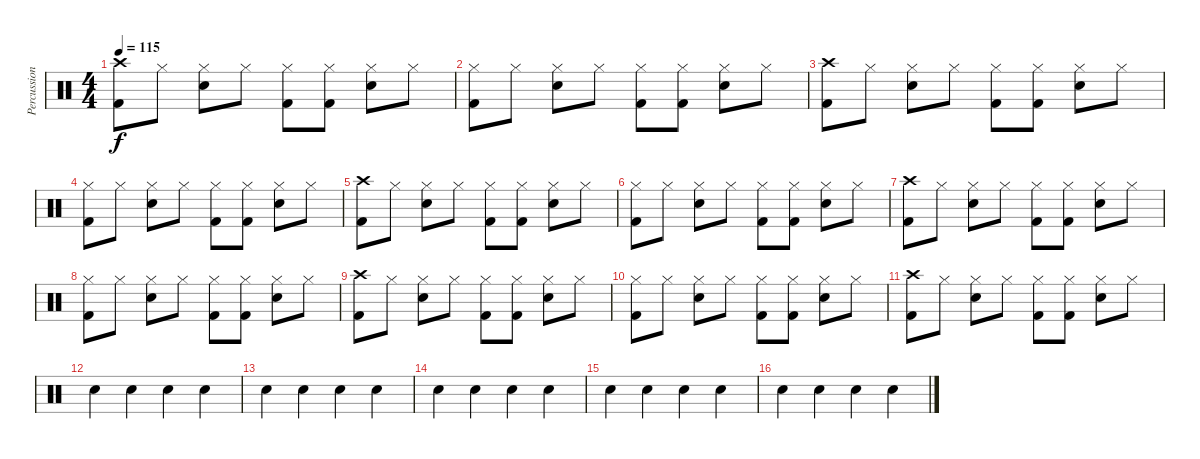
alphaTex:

\track ("Percussions" "Percussion") {instrument percussion}
\staff {score}
\articulation defaults
\ts (4 4)
\tempo 115
\clef neutral
\ks c
("Crash high (hit)" "Kick (hit) 2").8{dy f} "Hi-Hat (closed)".8 ("Hi-Hat (closed)" "Snare (hit) 2").8 "Hi-Hat (closed)".8 ("Hi-Hat (closed)" "Kick (hit) 2").8 ("Hi-Hat (closed)" "Kick (hit) 2").8 ("Hi-Hat (closed)" "Snare (hit) 2").8 "Hi-Hat (closed)".8 |
("Hi-Hat (closed)" "Kick (hit) 2").8 "Hi-Hat (closed)".8 ("Hi-Hat (closed)" "Snare (hit) 2").8 "Hi-Hat (closed)".8 ("Hi-Hat (closed)" "Kick (hit) 2").8 ("Hi-Hat (closed)" "Kick (hit) 2").8 ("Hi-Hat (closed)" "Snare (hit) 2").8 "Hi-Hat (closed)".8 |
("Crash high (hit)" "Kick (hit) 2").8 "Hi-Hat (closed)".8 ("Hi-Hat (closed)" "Snare (hit) 2").8 "Hi-Hat (closed)".8 ("Hi-Hat (closed)" "Kick (hit) 2").8 ("Hi-Hat (closed)" "Kick (hit) 2").8 ("Hi-Hat (closed)" "Snare (hit) 2").8 "Hi-Hat (closed)".8 |
("Hi-Hat (closed)" "Kick (hit) 2").8 "Hi-Hat (closed)".8 ("Hi-Hat (closed)" "Snare (hit) 2").8 "Hi-Hat (closed)".8 ("Hi-Hat (closed)" "Kick (hit) 2").8 ("Hi-Hat (closed)" "Kick (hit) 2").8 ("Hi-Hat (closed)" "Snare (hit) 2").8 "Hi-Hat (closed)".8 |
("Crash high (hit)" "Kick (hit) 2").8 "Hi-Hat (closed)".8 ("Hi-Hat (closed)" "Snare (hit) 2").8 "Hi-Hat (closed)".8 ("Hi-Hat (closed)" "Kick (hit) 2").8 ("Hi-Hat (closed)" "Kick (hit) 2").8 ("Hi-Hat (closed)" "Snare (hit) 2").8 "Hi-Hat (closed)".8 |
("Hi-Hat (closed)" "Kick (hit) 2").8 "Hi-Hat (closed)".8 ("Hi-Hat (closed)" "Snare (hit) 2").8 "Hi-Hat (closed)".8 ("Hi-Hat (closed)" "Kick (hit) 2").8 ("Hi-Hat (closed)" "Kick (hit) 2").8 ("Hi-Hat (closed)" "Snare (hit) 2").8 "Hi-Hat (closed)".8 |
("Crash high (hit)" "Kick (hit) 2").8 "Hi-Hat (closed)".8 ("Hi-Hat (closed)" "Snare (hit) 2").8 "Hi-Hat (closed)".8 ("Hi-Hat (closed)" "Kick (hit) 2").8 ("Hi-Hat (closed)" "Kick (hit) 2").8 ("Hi-Hat (closed)" "Snare (hit) 2").8 "Hi-Hat (closed)".8 |
("Hi-Hat (closed)" "Kick (hit) 2").8 "Hi-Hat (closed)".8 ("Hi-Hat (closed)" "Snare (hit) 2").8 "Hi-Hat (closed)".8 ("Hi-Hat (closed)" "Kick (hit) 2").8 ("Hi-Hat (closed)" "Kick (hit) 2").8 ("Hi-Hat (closed)" "Snare (hit) 2").8 "Hi-Hat (closed)".8 |
("Crash high (hit)" "Kick (hit) 2").8 "Hi-Hat (closed)".8 ("Hi-Hat (closed)" "Snare (hit) 2").8 "Hi-Hat (closed)".8 ("Hi-Hat (closed)" "Kick (hit) 2").8 ("Hi-Hat (closed)" "Kick (hit) 2").8 ("Hi-Hat (closed)" "Snare (hit) 2").8 "Hi-Hat (closed)".8 |
("Hi-Hat (closed)" "Kick (hit) 2").8 "Hi-Hat (closed)".8 ("Hi-Hat (closed)" "Snare (hit) 2").8 "Hi-Hat (closed)".8 ("Hi-Hat (closed)" "Kick (hit) 2").8 ("Hi-Hat (closed)" "Kick (hit) 2").8 ("Hi-Hat (closed)" "Snare (hit) 2").8 "Hi-Hat (closed)".8 |
("Crash high (hit)" "Kick (hit) 2").8 "Hi-Hat (closed)".8 ("Hi-Hat (closed)" "Snare (hit) 2").8 "Hi-Hat (closed)".8 ("Hi-Hat (closed)" "Kick (hit) 2").8 ("Hi-Hat (closed)" "Kick (hit) 2").8 ("Hi-Hat (closed)" "Snare (hit) 2").8 "Hi-Hat (closed)".8 |
"Snare (hit) 2".4 "Snare (hit) 2".4 "Snare (hit) 2".4 "Snare (hit) 2".4 |
"Snare (hit) 2".4 "Snare (hit) 2".4 "Snare (hit) 2".4 "Snare (hit) 2".4 |
"Snare (hit) 2".4 "Snare (hit) 2".4 "Snare (hit) 2".4 "Snare (hit) 2".4 |
"Snare (hit) 2".4 "Snare (hit) 2".4 "Snare (hit) 2".4 "Snare (hit) 2".4 |
"Snare (hit) 2".4 "Snare (hit) 2".4 "Snare (hit) 2".4 "Snare (hit) 2".4
